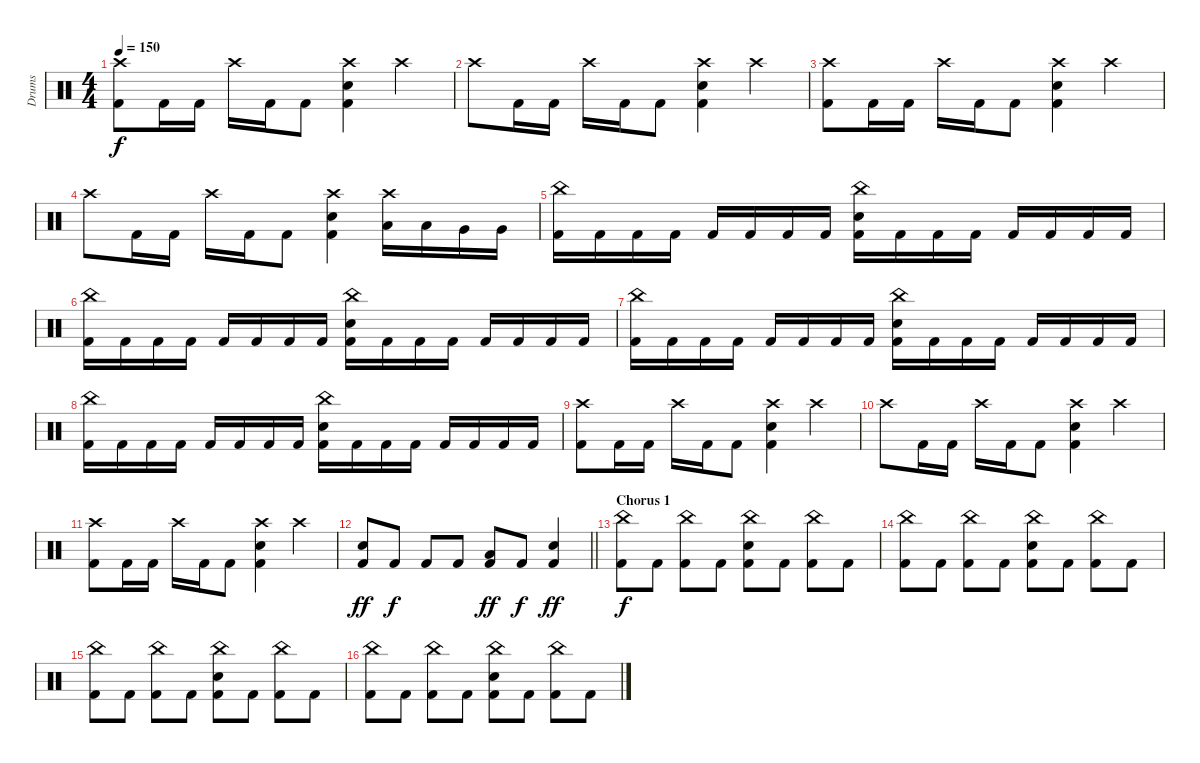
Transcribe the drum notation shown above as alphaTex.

\track ("Drums" "Drums") {instrument percussion}
\staff {score}
\articulation defaults
\ts (4 4)
\tempo 150
\clef neutral
\ks c
("Crash high (hit)" "Kick (hit) 2").8{dy f} "Kick (hit) 2".16 "Kick (hit) 2".16 "Crash high (hit)".16 "Kick (hit) 2".16 "Kick (hit) 2".8 ("Crash high (hit)" "Electric Snare (hit)" "Kick (hit) 2").4 "Crash high (hit)".4 |
"Crash high (hit)".8 "Kick (hit) 2".16 "Kick (hit) 2".16 "Crash high (hit)".16 "Kick (hit) 2".16 "Kick (hit) 2".8 ("Crash high (hit)" "Electric Snare (hit)" "Kick (hit) 2").4 "Crash high (hit)".4 |
("Crash high (hit)" "Kick (hit) 2").8 "Kick (hit) 2".16 "Kick (hit) 2".16 "Crash high (hit)".16 "Kick (hit) 2".16 "Kick (hit) 2".8 ("Crash high (hit)" "Electric Snare (hit)" "Kick (hit) 2").4 "Crash high (hit)".4 |
"Crash high (hit)".8 "Kick (hit) 2".16 "Kick (hit) 2".16 "Crash high (hit)".16 "Kick (hit) 2".16 "Kick (hit) 2".8 ("Crash high (hit)" "Electric Snare (hit)" "Kick (hit) 2").4 ("Crash high (hit)" "Low Tom (hit)").16 "Low Tom (hit)".16 "Very Low Tom (hit)".16 "Very Low Tom (hit)".16 |
("China (hit)" "Kick (hit) 2").16 "Kick (hit) 2".16 "Kick (hit) 2".16 "Kick (hit) 2".16 "Kick (hit) 2".16 "Kick (hit) 2".16 "Kick (hit) 2".16 "Kick (hit) 2".16 ("China (hit)" "Electric Snare (hit)" "Kick (hit) 2").16 "Kick (hit) 2".16 "Kick (hit) 2".16 "Kick (hit) 2".16 "Kick (hit) 2".16 "Kick (hit) 2".16 "Kick (hit) 2".16 "Kick (hit) 2".16 |
("China (hit)" "Kick (hit) 2").16 "Kick (hit) 2".16 "Kick (hit) 2".16 "Kick (hit) 2".16 "Kick (hit) 2".16 "Kick (hit) 2".16 "Kick (hit) 2".16 "Kick (hit) 2".16 ("China (hit)" "Electric Snare (hit)" "Kick (hit) 2").16 "Kick (hit) 2".16 "Kick (hit) 2".16 "Kick (hit) 2".16 "Kick (hit) 2".16 "Kick (hit) 2".16 "Kick (hit) 2".16 "Kick (hit) 2".16 |
("China (hit)" "Kick (hit) 2").16 "Kick (hit) 2".16 "Kick (hit) 2".16 "Kick (hit) 2".16 "Kick (hit) 2".16 "Kick (hit) 2".16 "Kick (hit) 2".16 "Kick (hit) 2".16 ("China (hit)" "Electric Snare (hit)" "Kick (hit) 2").16 "Kick (hit) 2".16 "Kick (hit) 2".16 "Kick (hit) 2".16 "Kick (hit) 2".16 "Kick (hit) 2".16 "Kick (hit) 2".16 "Kick (hit) 2".16 |
("China (hit)" "Kick (hit) 2").16 "Kick (hit) 2".16 "Kick (hit) 2".16 "Kick (hit) 2".16 "Kick (hit) 2".16 "Kick (hit) 2".16 "Kick (hit) 2".16 "Kick (hit) 2".16 ("China (hit)" "Electric Snare (hit)" "Kick (hit) 2").16 "Kick (hit) 2".16 "Kick (hit) 2".16 "Kick (hit) 2".16 "Kick (hit) 2".16 "Kick (hit) 2".16 "Kick (hit) 2".16 "Kick (hit) 2".16 |
("Crash high (hit)" "Kick (hit) 2").8 "Kick (hit) 2".16 "Kick (hit) 2".16 "Crash high (hit)".16 "Kick (hit) 2".16 "Kick (hit) 2".8 ("Crash high (hit)" "Electric Snare (hit)" "Kick (hit) 2").4 "Crash high (hit)".4 |
"Crash high (hit)".8 "Kick (hit) 2".16 "Kick (hit) 2".16 "Crash high (hit)".16 "Kick (hit) 2".16 "Kick (hit) 2".8 ("Crash high (hit)" "Electric Snare (hit)" "Kick (hit) 2").4 "Crash high (hit)".4 |
("Crash high (hit)" "Kick (hit) 2").8 "Kick (hit) 2".16 "Kick (hit) 2".16 "Crash high (hit)".16 "Kick (hit) 2".16 "Kick (hit) 2".8 ("Crash high (hit)" "Electric Snare (hit)" "Kick (hit) 2").4 "Crash high (hit)".4 |
\barLineRight lightlight
("Electric Snare (hit)" "Kick (hit) 2").8{dy ff} "Kick (hit) 2".8{dy f} "Kick (hit) 2".8 "Kick (hit) 2".8 ("Low Tom (hit)" "Kick (hit) 2").8{dy ff} "Kick (hit) 2".8{dy f} ("Electric Snare (hit)" "Kick (hit) 2").4{dy ff} |
\section ("" "Chorus 1")
("China (hit)" "Kick (hit) 2").8{dy f} "Kick (hit) 2".8 ("China (hit)" "Kick (hit) 2").8 "Kick (hit) 2".8 ("China (hit)" "Electric Snare (hit)" "Kick (hit) 2").8 "Kick (hit) 2".8 ("China (hit)" "Kick (hit) 2").8 "Kick (hit) 2".8 |
("China (hit)" "Kick (hit) 2").8 "Kick (hit) 2".8 ("China (hit)" "Kick (hit) 2").8 "Kick (hit) 2".8 ("China (hit)" "Electric Snare (hit)" "Kick (hit) 2").8 "Kick (hit) 2".8 ("China (hit)" "Kick (hit) 2").8 "Kick (hit) 2".8 |
("China (hit)" "Kick (hit) 2").8 "Kick (hit) 2".8 ("China (hit)" "Kick (hit) 2").8 "Kick (hit) 2".8 ("China (hit)" "Electric Snare (hit)" "Kick (hit) 2").8 "Kick (hit) 2".8 ("China (hit)" "Kick (hit) 2").8 "Kick (hit) 2".8 |
("China (hit)" "Kick (hit) 2").8 "Kick (hit) 2".8 ("China (hit)" "Kick (hit) 2").8 "Kick (hit) 2".8 ("China (hit)" "Electric Snare (hit)" "Kick (hit) 2").8 "Kick (hit) 2".8 ("China (hit)" "Kick (hit) 2").8 "Kick (hit) 2".8
